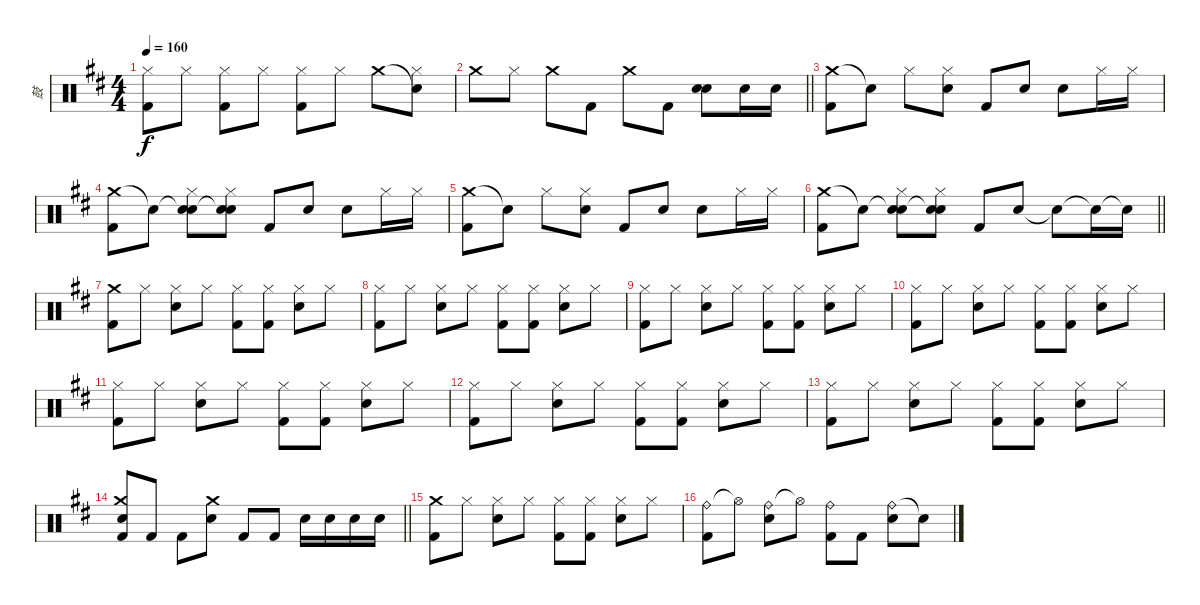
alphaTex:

\track ("鼓" "鼓") {instrument percussion}
\staff {score}
\articulation defaults
\ts (4 4)
\tempo 160
\clef neutral
\ks d
("Hi-Hat (closed)" "Kick (hit) 2").8{dy f} "Hi-Hat (closed)".8 ("Hi-Hat (closed)" "Kick (hit) 2").8 "Hi-Hat (closed)".8 ("Hi-Hat (closed)" "Kick (hit) 2").8 "Hi-Hat (closed)".8 "Crash medium (hit)".8 ("Snare (hit)"{t} "Hi-Hat (closed)").8 |
\barLineRight lightlight "Crash medium (hit)".8 "Hi-Hat (closed)".8 "Crash medium (hit)".8 "Kick (hit) 2".8 "Crash medium (hit)".8 "Kick (hit) 2".8
("Electric Snare (hit)" "Electric Snare (hit)").8 "Electric Snare (hit)".16 "Electric Snare (hit)".16 |
("Crash medium (hit)" "Kick (hit) 2").8 "Snare (hit)"{t}.8 "Hi-Hat (closed)".8 ("Hi-Hat (closed)" "Electric Snare (hit)").8 "Kick (hit) 2".8 "Electric Snare (hit)".8 "Electric Snare (hit)".8 "Hi-Hat (closed)".16 "Hi-Hat (closed)".16 |
("Crash medium (hit)" "Kick (hit) 2").8 "Snare (hit)"{t}.8 ("Snare (hit)"{t} "Hi-Hat (closed)" "Electric Snare (hit)").8 ("Snare (hit)"{t} "Hi-Hat (closed)" "Electric Snare (hit)").8 "Kick (hit) 2".8 "Electric Snare (hit)".8 "Electric Snare (hit)".8 "Hi-Hat (closed)".16 "Hi-Hat (closed)".16 |
("Crash medium (hit)" "Kick (hit) 2").8 "Snare (hit)"{t}.8 "Hi-Hat (closed)".8 ("Hi-Hat (closed)" "Electric Snare (hit)").8 "Kick (hit) 2".8 "Electric Snare (hit)".8 "Electric Snare (hit)".8 "Hi-Hat (closed)".16 "Hi-Hat (closed)".16 |
\barLineRight lightlight
("Crash medium (hit)" "Kick (hit) 2").8 "Snare (hit)"{t}.8 ("Snare (hit)"{t} "Hi-Hat (closed)" "Electric Snare (hit)").8 ("Snare (hit)"{t} "Hi-Hat (closed)" "Electric Snare (hit)").8 "Kick (hit) 2".8 "Electric Snare (hit)".8 "Electric Snare (hit)"{t}.8 "Snare (hit)"{t}.16 "Snare (hit)"{t}.16 |
("Crash medium (hit)" "Kick (hit) 2").8 "Hi-Hat (closed)".8 ("Hi-Hat (closed)" "Electric Snare (hit)").8 "Hi-Hat (closed)".8 ("Hi-Hat (closed)" "Kick (hit) 2").8 ("Hi-Hat (closed)" "Kick (hit) 2").8 ("Hi-Hat (closed)" "Electric Snare (hit)").8 "Hi-Hat (closed)".8 |
("Hi-Hat (closed)" "Kick (hit) 2").8 "Hi-Hat (closed)".8 ("Hi-Hat (closed)" "Electric Snare (hit)").8 "Hi-Hat (closed)".8 ("Hi-Hat (closed)" "Kick (hit) 2").8 ("Hi-Hat (closed)" "Kick (hit) 2").8 ("Hi-Hat (closed)" "Electric Snare (hit)").8 "Hi-Hat (closed)".8 |
("Hi-Hat (closed)" "Kick (hit) 2").8 "Hi-Hat (closed)".8 ("Hi-Hat (closed)" "Electric Snare (hit)").8 "Hi-Hat (closed)".8 ("Hi-Hat (closed)" "Kick (hit) 2").8 ("Hi-Hat (closed)" "Kick (hit) 2").8 ("Hi-Hat (closed)" "Electric Snare (hit)").8 "Hi-Hat (closed)".8 |
("Hi-Hat (closed)" "Kick (hit) 2").8 "Hi-Hat (closed)".8 ("Hi-Hat (closed)" "Electric Snare (hit)").8 "Hi-Hat (closed)".8 ("Hi-Hat (closed)" "Kick (hit) 2").8 ("Hi-Hat (closed)" "Kick (hit) 2").8 ("Hi-Hat (closed)" "Electric Snare (hit)").8 "Hi-Hat (closed)".8 |
("Hi-Hat (closed)" "Kick (hit) 2").8 "Hi-Hat (closed)".8 ("Hi-Hat (closed)" "Electric Snare (hit)").8 "Hi-Hat (closed)".8 ("Hi-Hat (closed)" "Kick (hit) 2").8 ("Hi-Hat (closed)" "Kick (hit) 2").8 ("Hi-Hat (closed)" "Electric Snare (hit)").8 "Hi-Hat (closed)".8 |
("Hi-Hat (closed)" "Kick (hit) 2").8 "Hi-Hat (closed)".8 ("Hi-Hat (closed)" "Electric Snare (hit)").8 "Hi-Hat (closed)".8 ("Hi-Hat (closed)" "Kick (hit) 2").8 ("Hi-Hat (closed)" "Kick (hit) 2").8 ("Hi-Hat (closed)" "Electric Snare (hit)").8 "Hi-Hat (closed)".8 |
("Hi-Hat (closed)" "Kick (hit) 2").8 "Hi-Hat (closed)".8 ("Hi-Hat (closed)" "Electric Snare (hit)").8 "Hi-Hat (closed)".8 ("Hi-Hat (closed)" "Kick (hit) 2").8 ("Hi-Hat (closed)" "Kick (hit) 2").8 ("Hi-Hat (closed)" "Electric Snare (hit)").8 "Hi-Hat (closed)".8 |
\barLineRight lightlight
("Crash medium (hit)" "Electric Snare (hit)" "Kick (hit) 2").8 "Kick (hit) 2".8 "Kick (hit) 2".8 ("Crash medium (hit)" "Electric Snare (hit)").8 "Kick (hit) 2".8 "Kick (hit) 2".8 "Electric Snare (hit)".16 "Electric Snare (hit)".16 "Electric Snare (hit)".16 "Electric Snare (hit)".16 |
("Crash medium (hit)" "Kick (hit) 2").8 "Hi-Hat (closed)".8 ("Hi-Hat (closed)" "Electric Snare (hit)").8 "Hi-Hat (closed)".8 ("Hi-Hat (closed)" "Kick (hit) 2").8 ("Hi-Hat (closed)" "Kick (hit) 2").8 ("Hi-Hat (closed)" "Electric Snare (hit)").8 "Hi-Hat (closed)".8 |
("Ride (bell)" "Kick (hit) 2").8 "Hi-Hat (open)"{t}.8 ("Ride (bell)" "Electric Snare (hit)").8 "Hi-Hat (open)"{t}.8 ("Ride (bell)" "Kick (hit) 2").8 "Kick (hit) 2".8 ("Ride (bell)" "Electric Snare (hit)").8 "Snare (hit)"{t}.8
